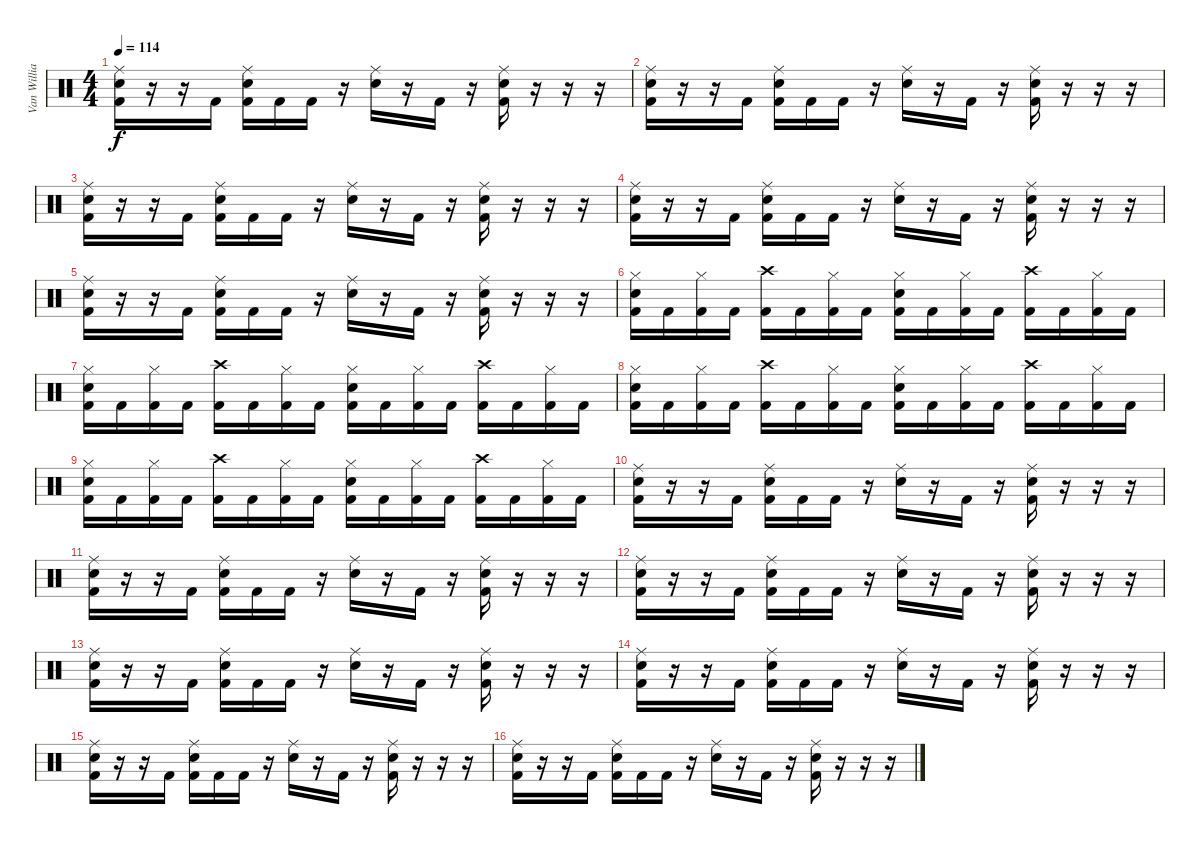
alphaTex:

\track ("Van Williams (Drums)" "Van Willia") {instrument percussion}
\staff {score}
\articulation defaults
\ts (4 4)
\tempo 114
\clef neutral
\ks c
("Ride (middle)" "Snare (hit) 2" "Kick (hit) 2").16{dy f} r.16 r.16 "Kick (hit) 2".16 ("Ride (middle)" "Snare (hit) 2" "Kick (hit) 2").16 "Kick (hit) 2".16 "Kick (hit) 2".16 r.16 ("Ride (middle)" "Snare (hit) 2").16 r.16 "Kick (hit) 2".16 r.16 ("Ride (middle)" "Snare (hit) 2" "Kick (hit) 2").16 r.16 r.16 r.16 |
("Ride (middle)" "Snare (hit) 2" "Kick (hit) 2").16 r.16 r.16 "Kick (hit) 2".16 ("Ride (middle)" "Snare (hit) 2" "Kick (hit) 2").16 "Kick (hit) 2".16 "Kick (hit) 2".16 r.16 ("Ride (middle)" "Snare (hit) 2").16 r.16 "Kick (hit) 2".16 r.16 ("Ride (middle)" "Snare (hit) 2" "Kick (hit) 2").16 r.16 r.16 r.16 |
("Ride (middle)" "Snare (hit) 2" "Kick (hit) 2").16 r.16 r.16 "Kick (hit) 2".16 ("Ride (middle)" "Snare (hit) 2" "Kick (hit) 2").16 "Kick (hit) 2".16 "Kick (hit) 2".16 r.16 ("Ride (middle)" "Snare (hit) 2").16 r.16 "Kick (hit) 2".16 r.16 ("Ride (middle)" "Snare (hit) 2" "Kick (hit) 2").16 r.16 r.16 r.16 |
("Ride (middle)" "Snare (hit) 2" "Kick (hit) 2").16 r.16 r.16 "Kick (hit) 2".16 ("Ride (middle)" "Snare (hit) 2" "Kick (hit) 2").16 "Kick (hit) 2".16 "Kick (hit) 2".16 r.16 ("Ride (middle)" "Snare (hit) 2").16 r.16 "Kick (hit) 2".16 r.16 ("Ride (middle)" "Snare (hit) 2" "Kick (hit) 2").16 r.16 r.16 r.16 |
("Ride (middle)" "Snare (hit) 2" "Kick (hit) 2").16 r.16 r.16 "Kick (hit) 2".16 ("Ride (middle)" "Snare (hit) 2" "Kick (hit) 2").16 "Kick (hit) 2".16 "Kick (hit) 2".16 r.16 ("Ride (middle)" "Snare (hit) 2").16 r.16 "Kick (hit) 2".16 r.16 ("Ride (middle)" "Snare (hit) 2" "Kick (hit) 2").16 r.16 r.16 r.16 |
("Snare (hit) 2" "Hi-Hat (closed)" "Kick (hit) 2").16 "Kick (hit) 2".16 ("Hi-Hat (closed)" "Kick (hit) 2").16 "Kick (hit) 2".16 ("Crash high (hit)" "Kick (hit) 2").16 "Kick (hit) 2".16 ("Hi-Hat (closed)" "Kick (hit) 2").16 "Kick (hit) 2".16 ("Snare (hit) 2" "Hi-Hat (closed)" "Kick (hit) 2").16 "Kick (hit) 2".16 ("Hi-Hat (closed)" "Kick (hit) 2").16 "Kick (hit) 2".16 ("Crash high (hit)" "Kick (hit) 2").16 "Kick (hit) 2".16 ("Hi-Hat (closed)" "Kick (hit) 2").16 "Kick (hit) 2".16 |
("Snare (hit) 2" "Hi-Hat (closed)" "Kick (hit) 2").16 "Kick (hit) 2".16 ("Hi-Hat (closed)" "Kick (hit) 2").16 "Kick (hit) 2".16 ("Crash high (hit)" "Kick (hit) 2").16 "Kick (hit) 2".16 ("Hi-Hat (closed)" "Kick (hit) 2").16 "Kick (hit) 2".16 ("Snare (hit) 2" "Hi-Hat (closed)" "Kick (hit) 2").16 "Kick (hit) 2".16 ("Hi-Hat (closed)" "Kick (hit) 2").16 "Kick (hit) 2".16 ("Crash high (hit)" "Kick (hit) 2").16 "Kick (hit) 2".16 ("Hi-Hat (closed)" "Kick (hit) 2").16 "Kick (hit) 2".16 |
("Snare (hit) 2" "Hi-Hat (closed)" "Kick (hit) 2").16 "Kick (hit) 2".16 ("Hi-Hat (closed)" "Kick (hit) 2").16 "Kick (hit) 2".16 ("Crash high (hit)" "Kick (hit) 2").16 "Kick (hit) 2".16 ("Hi-Hat (closed)" "Kick (hit) 2").16 "Kick (hit) 2".16 ("Snare (hit) 2" "Hi-Hat (closed)" "Kick (hit) 2").16 "Kick (hit) 2".16 ("Hi-Hat (closed)" "Kick (hit) 2").16 "Kick (hit) 2".16 ("Crash high (hit)" "Kick (hit) 2").16 "Kick (hit) 2".16 ("Hi-Hat (closed)" "Kick (hit) 2").16 "Kick (hit) 2".16 |
("Snare (hit) 2" "Hi-Hat (closed)" "Kick (hit) 2").16 "Kick (hit) 2".16 ("Hi-Hat (closed)" "Kick (hit) 2").16 "Kick (hit) 2".16 ("Crash high (hit)" "Kick (hit) 2").16 "Kick (hit) 2".16 ("Hi-Hat (closed)" "Kick (hit) 2").16 "Kick (hit) 2".16 ("Snare (hit) 2" "Hi-Hat (closed)" "Kick (hit) 2").16 "Kick (hit) 2".16 ("Hi-Hat (closed)" "Kick (hit) 2").16 "Kick (hit) 2".16 ("Crash high (hit)" "Kick (hit) 2").16 "Kick (hit) 2".16 ("Hi-Hat (closed)" "Kick (hit) 2").16 "Kick (hit) 2".16 |
("Ride (middle)" "Snare (hit) 2" "Kick (hit) 2").16 r.16 r.16 "Kick (hit) 2".16 ("Ride (middle)" "Snare (hit) 2" "Kick (hit) 2").16 "Kick (hit) 2".16 "Kick (hit) 2".16 r.16 ("Ride (middle)" "Snare (hit) 2").16 r.16 "Kick (hit) 2".16 r.16 ("Ride (middle)" "Snare (hit) 2" "Kick (hit) 2").16 r.16 r.16 r.16 |
("Ride (middle)" "Snare (hit) 2" "Kick (hit) 2").16 r.16 r.16 "Kick (hit) 2".16 ("Ride (middle)" "Snare (hit) 2" "Kick (hit) 2").16 "Kick (hit) 2".16 "Kick (hit) 2".16 r.16 ("Ride (middle)" "Snare (hit) 2").16 r.16 "Kick (hit) 2".16 r.16 ("Ride (middle)" "Snare (hit) 2" "Kick (hit) 2").16 r.16 r.16 r.16 |
("Ride (middle)" "Snare (hit) 2" "Kick (hit) 2").16 r.16 r.16 "Kick (hit) 2".16 ("Ride (middle)" "Snare (hit) 2" "Kick (hit) 2").16 "Kick (hit) 2".16 "Kick (hit) 2".16 r.16 ("Ride (middle)" "Snare (hit) 2").16 r.16 "Kick (hit) 2".16 r.16 ("Ride (middle)" "Snare (hit) 2" "Kick (hit) 2").16 r.16 r.16 r.16 |
("Ride (middle)" "Snare (hit) 2" "Kick (hit) 2").16 r.16 r.16 "Kick (hit) 2".16 ("Ride (middle)" "Snare (hit) 2" "Kick (hit) 2").16 "Kick (hit) 2".16 "Kick (hit) 2".16 r.16 ("Ride (middle)" "Snare (hit) 2").16 r.16 "Kick (hit) 2".16 r.16 ("Ride (middle)" "Snare (hit) 2" "Kick (hit) 2").16 r.16 r.16 r.16 |
("Ride (middle)" "Snare (hit) 2" "Kick (hit) 2").16 r.16 r.16 "Kick (hit) 2".16 ("Ride (middle)" "Snare (hit) 2" "Kick (hit) 2").16 "Kick (hit) 2".16 "Kick (hit) 2".16 r.16 ("Ride (middle)" "Snare (hit) 2").16 r.16 "Kick (hit) 2".16 r.16 ("Ride (middle)" "Snare (hit) 2" "Kick (hit) 2").16 r.16 r.16 r.16 |
("Ride (middle)" "Snare (hit) 2" "Kick (hit) 2").16 r.16 r.16 "Kick (hit) 2".16 ("Ride (middle)" "Snare (hit) 2" "Kick (hit) 2").16 "Kick (hit) 2".16 "Kick (hit) 2".16 r.16 ("Ride (middle)" "Snare (hit) 2").16 r.16 "Kick (hit) 2".16 r.16 ("Ride (middle)" "Snare (hit) 2" "Kick (hit) 2").16 r.16 r.16 r.16 |
("Ride (middle)" "Snare (hit) 2" "Kick (hit) 2").16 r.16 r.16 "Kick (hit) 2".16 ("Ride (middle)" "Snare (hit) 2" "Kick (hit) 2").16 "Kick (hit) 2".16 "Kick (hit) 2".16 r.16 ("Ride (middle)" "Snare (hit) 2").16 r.16 "Kick (hit) 2".16 r.16 ("Ride (middle)" "Snare (hit) 2" "Kick (hit) 2").16 r.16 r.16 r.16
